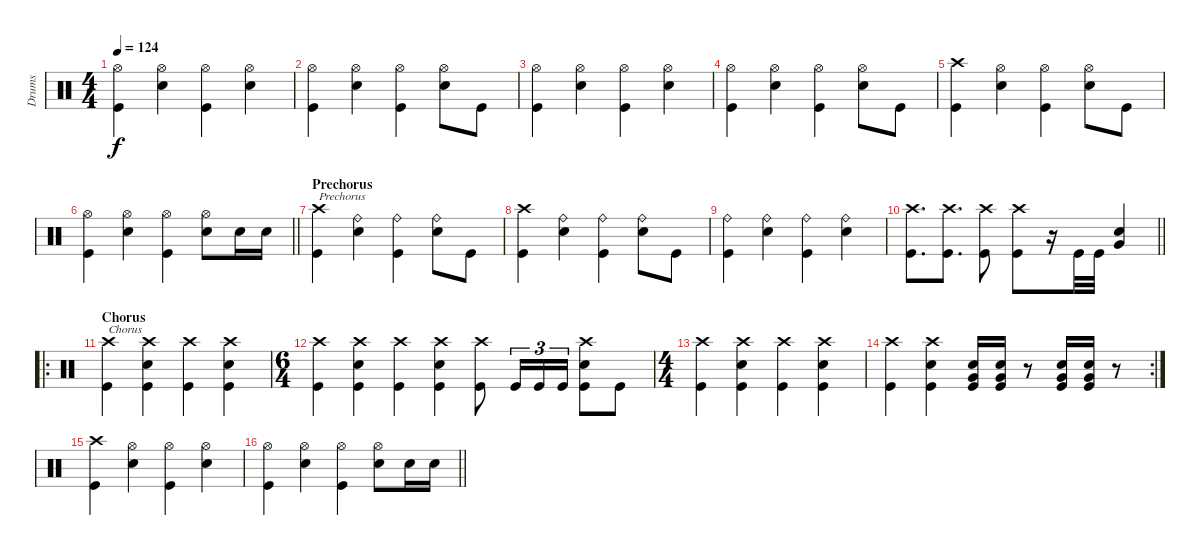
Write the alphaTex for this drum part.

\track ("Drums" "Drums") {instrument percussion}
\staff {score}
\articulation defaults
\ts (4 4)
\tempo 124
\clef neutral
\ks c
("Hi-Hat (open)" "Kick (hit)").4{dy f} ("Hi-Hat (open)" "Snare (hit) 2").4 ("Hi-Hat (open)" "Kick (hit)").4 ("Hi-Hat (open)" "Snare (hit) 2").4 |
("Hi-Hat (open)" "Kick (hit)").4 ("Hi-Hat (open)" "Snare (hit) 2").4 ("Hi-Hat (open)" "Kick (hit)").4 ("Hi-Hat (open)" "Snare (hit) 2").8 "Kick (hit)".8 |
("Hi-Hat (open)" "Kick (hit)").4 ("Hi-Hat (open)" "Snare (hit) 2").4 ("Hi-Hat (open)" "Kick (hit)").4 ("Hi-Hat (open)" "Snare (hit) 2").4 |
("Hi-Hat (open)" "Kick (hit)").4 ("Hi-Hat (open)" "Snare (hit) 2").4 ("Hi-Hat (open)" "Kick (hit)").4 ("Hi-Hat (open)" "Snare (hit) 2").8 "Kick (hit)".8 |
("Crash high (hit)" "Kick (hit)").4 ("Hi-Hat (open)" "Snare (hit) 2").4 ("Hi-Hat (open)" "Kick (hit)").4 ("Hi-Hat (open)" "Snare (hit) 2").8 "Kick (hit)".8 |
\barLineRight lightlight
("Hi-Hat (open)" "Kick (hit)").4 ("Hi-Hat (open)" "Snare (hit) 2").4 ("Hi-Hat (open)" "Kick (hit)").4 ("Hi-Hat (open)" "Snare (hit) 2").8 "Snare (hit) 2".16 "Snare (hit) 2".16 |
\section ("" "Prechorus")
("Crash high (hit)" "Kick (hit)").4{txt "Prechorus"} ("Ride (bell)" "Snare (hit) 2").4 ("Ride (bell)" "Kick (hit)").4 ("Ride (bell)" "Snare (hit) 2").8 "Kick (hit)".8 |
("Crash high (hit)" "Kick (hit)").4 ("Ride (bell)" "Snare (hit) 2").4 ("Ride (bell)" "Kick (hit)").4 ("Ride (bell)" "Snare (hit) 2").8 "Kick (hit)".8 |
("Ride (bell)" "Kick (hit)").4 ("Ride (bell)" "Snare (hit) 2").4 ("Ride (bell)" "Kick (hit)").4 ("Ride (bell)" "Snare (hit) 2").4 |
\barLineRight lightlight
("Crash high (hit)" "Kick (hit)").8{d} ("Crash high (hit)" "Kick (hit)").8{d} ("Crash high (hit)" "Kick (hit)").8 ("Crash high (hit)" "Kick (hit)").8 r.16 "Kick (hit)".32 "Kick (hit)".32 ("Snare (hit) 2" "Very Low Tom (hit)").4 |
\ro
\section ("" "Chorus")
("Crash high (hit)" "Kick (hit)").4{txt "Chorus"} ("Crash high (hit)" "Snare (hit) 2" "Kick (hit)").4 ("Crash high (hit)" "Kick (hit)").4 ("Crash high (hit)" "Snare (hit) 2" "Kick (hit)").4 |
\ts (6 4)
("Crash high (hit)" "Kick (hit)").4 ("Crash high (hit)" "Snare (hit) 2" "Kick (hit)").4 ("Crash high (hit)" "Kick (hit)").4 ("Crash high (hit)" "Snare (hit) 2" "Kick (hit)").4 ("Crash high (hit)" "Kick (hit)").8 "Kick (hit)".16{tu (3 2)} "Kick (hit)".16{tu (3 2)} "Kick (hit)".16{tu (3 2)} ("Crash high (hit)" "Snare (hit) 2" "Kick (hit)").8 "Kick (hit)".8 |
\ts (4 4)
("Crash high (hit)" "Kick (hit)").4 ("Crash high (hit)" "Snare (hit) 2" "Kick (hit)").4 ("Crash high (hit)" "Kick (hit)").4 ("Crash high (hit)" "Snare (hit) 2" "Kick (hit)").4 |
\rc 2
("Crash high (hit)" "Kick (hit)").4 ("Crash high (hit)" "Snare (hit) 2" "Kick (hit)").4 ("Snare (hit) 2" "Very Low Tom (hit)" "Kick (hit)").16 ("Snare (hit) 2" "Very Low Tom (hit)" "Kick (hit)").16 r.8 ("Snare (hit) 2" "Very Low Tom (hit)" "Kick (hit)").16 ("Snare (hit) 2" "Very Low Tom (hit)" "Kick (hit)").16 r.8 |
("Crash high (hit)" "Kick (hit)").4 ("Hi-Hat (open)" "Snare (hit) 2").4 ("Hi-Hat (open)" "Kick (hit)").4 ("Hi-Hat (open)" "Snare (hit) 2").4 |
\barLineRight lightlight
("Hi-Hat (open)" "Kick (hit)").4 ("Hi-Hat (open)" "Snare (hit) 2").4 ("Hi-Hat (open)" "Kick (hit)").4 ("Hi-Hat (open)" "Snare (hit) 2").8 "Snare (hit) 2".16 "Snare (hit) 2".16
